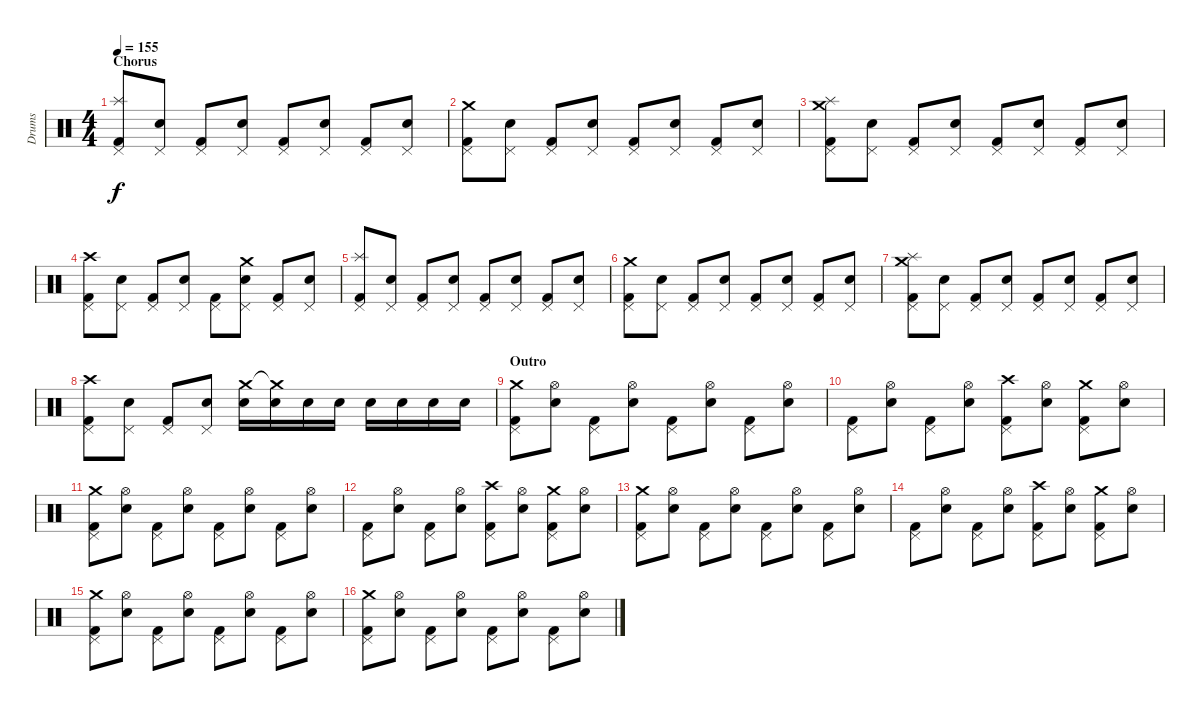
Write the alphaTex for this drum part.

\track ("Drums" "Drums") {instrument percussion}
\staff {score}
\articulation defaults
\ts (4 4)
\section ("" "Chorus")
\tempo 155
\clef neutral
\ks c
("Pedal Hi-Hat (hit)" "Splash (hit)" "Kick (hit) 2").8{dy f} ("Pedal Hi-Hat (hit)" "Electric Snare (hit)").8 ("Pedal Hi-Hat (hit)" "Kick (hit) 2").8 ("Pedal Hi-Hat (hit)" "Electric Snare (hit)").8 ("Pedal Hi-Hat (hit)" "Kick (hit) 2").8 ("Pedal Hi-Hat (hit)" "Electric Snare (hit)").8 ("Pedal Hi-Hat (hit)" "Kick (hit) 2").8 ("Pedal Hi-Hat (hit)" "Electric Snare (hit)").8 |
("Pedal Hi-Hat (hit)" "Crash medium (hit)" "Kick (hit) 2").8 ("Pedal Hi-Hat (hit)" "Electric Snare (hit)").8 ("Pedal Hi-Hat (hit)" "Kick (hit) 2").8 ("Pedal Hi-Hat (hit)" "Electric Snare (hit)").8 ("Pedal Hi-Hat (hit)" "Kick (hit) 2").8 ("Pedal Hi-Hat (hit)" "Electric Snare (hit)").8 ("Pedal Hi-Hat (hit)" "Kick (hit) 2").8 ("Pedal Hi-Hat (hit)" "Electric Snare (hit)").8 |
("Pedal Hi-Hat (hit)" "Splash (hit)" "Crash medium (hit)" "Kick (hit) 2").8 ("Pedal Hi-Hat (hit)" "Electric Snare (hit)").8 ("Pedal Hi-Hat (hit)" "Kick (hit) 2").8 ("Pedal Hi-Hat (hit)" "Electric Snare (hit)").8 ("Pedal Hi-Hat (hit)" "Kick (hit) 2").8 ("Pedal Hi-Hat (hit)" "Electric Snare (hit)").8 ("Pedal Hi-Hat (hit)" "Kick (hit) 2").8 ("Pedal Hi-Hat (hit)" "Electric Snare (hit)").8 |
("Pedal Hi-Hat (hit)" "Crash high (hit)" "Kick (hit) 2").8 ("Pedal Hi-Hat (hit)" "Electric Snare (hit)").8 ("Pedal Hi-Hat (hit)" "Kick (hit) 2").8 ("Pedal Hi-Hat (hit)" "Electric Snare (hit)").8 ("Pedal Hi-Hat (hit)" "Kick (hit) 2").8 ("Pedal Hi-Hat (hit)" "Crash medium (hit)" "Electric Snare (hit)").8 ("Pedal Hi-Hat (hit)" "Kick (hit) 2").8 ("Pedal Hi-Hat (hit)" "Electric Snare (hit)").8 |
("Pedal Hi-Hat (hit)" "Splash (hit)" "Kick (hit) 2").8 ("Pedal Hi-Hat (hit)" "Electric Snare (hit)").8 ("Pedal Hi-Hat (hit)" "Kick (hit) 2").8 ("Pedal Hi-Hat (hit)" "Electric Snare (hit)").8 ("Pedal Hi-Hat (hit)" "Kick (hit) 2").8 ("Pedal Hi-Hat (hit)" "Electric Snare (hit)").8 ("Pedal Hi-Hat (hit)" "Kick (hit) 2").8 ("Pedal Hi-Hat (hit)" "Electric Snare (hit)").8 |
("Pedal Hi-Hat (hit)" "Crash medium (hit)" "Kick (hit) 2").8 ("Pedal Hi-Hat (hit)" "Electric Snare (hit)").8 ("Pedal Hi-Hat (hit)" "Kick (hit) 2").8 ("Pedal Hi-Hat (hit)" "Electric Snare (hit)").8 ("Pedal Hi-Hat (hit)" "Kick (hit) 2").8 ("Pedal Hi-Hat (hit)" "Electric Snare (hit)").8 ("Pedal Hi-Hat (hit)" "Kick (hit) 2").8 ("Pedal Hi-Hat (hit)" "Electric Snare (hit)").8 |
("Pedal Hi-Hat (hit)" "Splash (hit)" "Crash medium (hit)" "Kick (hit) 2").8 ("Pedal Hi-Hat (hit)" "Electric Snare (hit)").8 ("Pedal Hi-Hat (hit)" "Kick (hit) 2").8 ("Pedal Hi-Hat (hit)" "Electric Snare (hit)").8 ("Pedal Hi-Hat (hit)" "Kick (hit) 2").8 ("Pedal Hi-Hat (hit)" "Electric Snare (hit)").8 ("Pedal Hi-Hat (hit)" "Kick (hit) 2").8 ("Pedal Hi-Hat (hit)" "Electric Snare (hit)").8 |
("Pedal Hi-Hat (hit)" "Crash high (hit)" "Kick (hit) 2").8 ("Pedal Hi-Hat (hit)" "Electric Snare (hit)").8 ("Pedal Hi-Hat (hit)" "Kick (hit) 2").8 ("Pedal Hi-Hat (hit)" "Electric Snare (hit)").8 ("Crash medium (hit)" "Electric Snare (hit)").16 ("Crash medium (hit)"{t} "Electric Snare (hit)").16 "Electric Snare (hit)".16 "Electric Snare (hit)".16 "Electric Snare (hit)".16 "Electric Snare (hit)".16 "Electric Snare (hit)".16 "Electric Snare (hit)".16 |
\section ("" "Outro")
("Pedal Hi-Hat (hit)" "Crash medium (hit)" "Kick (hit) 2").8 ("Hi-Hat (open)" "Electric Snare (hit)").8 ("Pedal Hi-Hat (hit)" "Kick (hit) 2").8 ("Hi-Hat (open)" "Electric Snare (hit)").8 ("Pedal Hi-Hat (hit)" "Kick (hit) 2").8 ("Hi-Hat (open)" "Electric Snare (hit)").8 ("Pedal Hi-Hat (hit)" "Kick (hit) 2").8 ("Hi-Hat (open)" "Electric Snare (hit)").8 |
("Pedal Hi-Hat (hit)" "Kick (hit) 2").8 ("Hi-Hat (open)" "Electric Snare (hit)").8 ("Pedal Hi-Hat (hit)" "Kick (hit) 2").8 ("Hi-Hat (open)" "Electric Snare (hit)").8 ("Pedal Hi-Hat (hit)" "Crash high (hit)" "Kick (hit) 2").8 ("Hi-Hat (open)" "Electric Snare (hit)").8 ("Pedal Hi-Hat (hit)" "Crash medium (hit)" "Kick (hit) 2").8 ("Hi-Hat (open)" "Electric Snare (hit)").8 |
("Pedal Hi-Hat (hit)" "Crash medium (hit)" "Kick (hit) 2").8 ("Hi-Hat (open)" "Electric Snare (hit)").8 ("Pedal Hi-Hat (hit)" "Kick (hit) 2").8 ("Hi-Hat (open)" "Electric Snare (hit)").8 ("Pedal Hi-Hat (hit)" "Kick (hit) 2").8 ("Hi-Hat (open)" "Electric Snare (hit)").8 ("Pedal Hi-Hat (hit)" "Kick (hit) 2").8 ("Hi-Hat (open)" "Electric Snare (hit)").8 |
("Pedal Hi-Hat (hit)" "Kick (hit) 2").8 ("Hi-Hat (open)" "Electric Snare (hit)").8 ("Pedal Hi-Hat (hit)" "Kick (hit) 2").8 ("Hi-Hat (open)" "Electric Snare (hit)").8 ("Pedal Hi-Hat (hit)" "Crash high (hit)" "Kick (hit) 2").8 ("Hi-Hat (open)" "Electric Snare (hit)").8 ("Pedal Hi-Hat (hit)" "Crash medium (hit)" "Kick (hit) 2").8 ("Hi-Hat (open)" "Electric Snare (hit)").8 |
("Pedal Hi-Hat (hit)" "Crash medium (hit)" "Kick (hit) 2").8 ("Hi-Hat (open)" "Electric Snare (hit)").8 ("Pedal Hi-Hat (hit)" "Kick (hit) 2").8 ("Hi-Hat (open)" "Electric Snare (hit)").8 ("Pedal Hi-Hat (hit)" "Kick (hit) 2").8 ("Hi-Hat (open)" "Electric Snare (hit)").8 ("Pedal Hi-Hat (hit)" "Kick (hit) 2").8 ("Hi-Hat (open)" "Electric Snare (hit)").8 |
("Pedal Hi-Hat (hit)" "Kick (hit) 2").8 ("Hi-Hat (open)" "Electric Snare (hit)").8 ("Pedal Hi-Hat (hit)" "Kick (hit) 2").8 ("Hi-Hat (open)" "Electric Snare (hit)").8 ("Pedal Hi-Hat (hit)" "Crash high (hit)" "Kick (hit) 2").8 ("Hi-Hat (open)" "Electric Snare (hit)").8 ("Pedal Hi-Hat (hit)" "Crash medium (hit)" "Kick (hit) 2").8 ("Hi-Hat (open)" "Electric Snare (hit)").8 |
("Pedal Hi-Hat (hit)" "Crash medium (hit)" "Kick (hit) 2").8 ("Hi-Hat (open)" "Electric Snare (hit)").8 ("Pedal Hi-Hat (hit)" "Kick (hit) 2").8 ("Hi-Hat (open)" "Electric Snare (hit)").8 ("Pedal Hi-Hat (hit)" "Kick (hit) 2").8 ("Hi-Hat (open)" "Electric Snare (hit)").8 ("Pedal Hi-Hat (hit)" "Kick (hit) 2").8 ("Hi-Hat (open)" "Electric Snare (hit)").8 |
("Pedal Hi-Hat (hit)" "Crash medium (hit)" "Kick (hit) 2").8 ("Hi-Hat (open)" "Electric Snare (hit)").8 ("Pedal Hi-Hat (hit)" "Kick (hit) 2").8 ("Hi-Hat (open)" "Electric Snare (hit)").8 ("Pedal Hi-Hat (hit)" "Kick (hit) 2").8 ("Hi-Hat (open)" "Electric Snare (hit)").8 ("Pedal Hi-Hat (hit)" "Kick (hit) 2").8 ("Hi-Hat (open)" "Electric Snare (hit)").8
